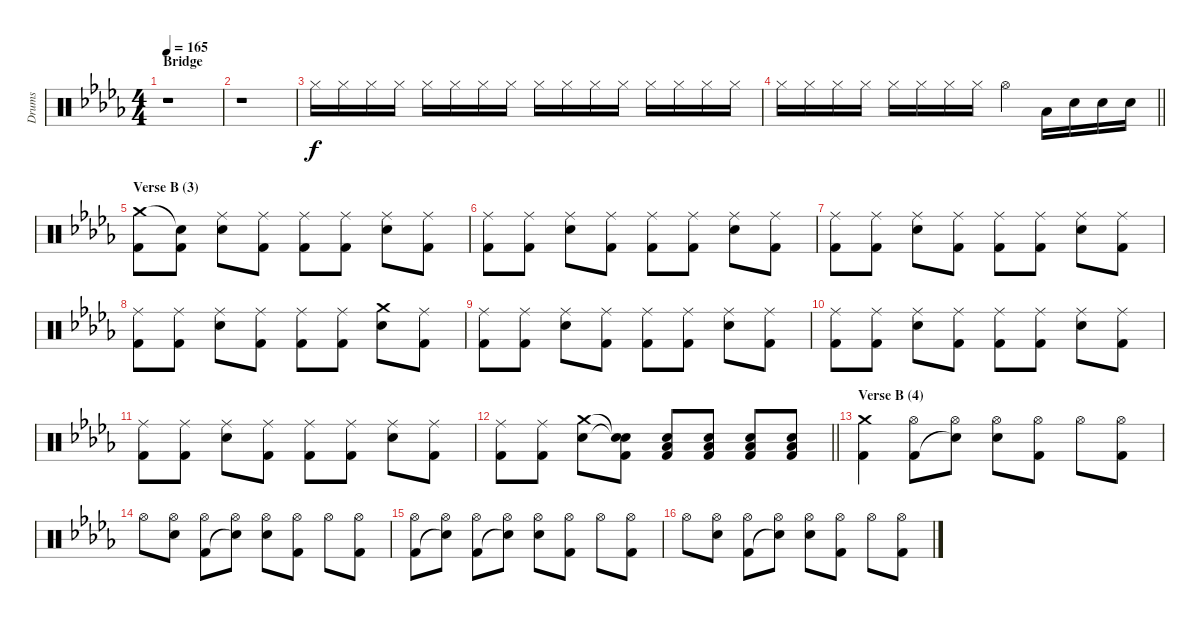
\track ("Drums" "Drums") {instrument percussion}
\staff {score}
\articulation defaults
\ts (4 4)
\section ("" "Bridge")
\tempo 165
\clef neutral
\ks bbminor
r.1{dy f} |
r.1 |
"Hi-Hat (closed)".16 "Hi-Hat (closed)".16 "Hi-Hat (closed)".16 "Hi-Hat (closed)".16 "Hi-Hat (closed)".16 "Hi-Hat (closed)".16 "Hi-Hat (closed)".16 "Hi-Hat (closed)".16 "Hi-Hat (closed)".16 "Hi-Hat (closed)".16 "Hi-Hat (closed)".16 "Hi-Hat (closed)".16 "Hi-Hat (closed)".16 "Hi-Hat (closed)".16 "Hi-Hat (closed)".16 "Hi-Hat (closed)".16 |
\barLineRight lightlight "Hi-Hat (closed)".16 "Hi-Hat (closed)".16 "Hi-Hat (closed)".16 "Hi-Hat (closed)".16 "Hi-Hat (closed)".16 "Hi-Hat (closed)".16 "Hi-Hat (closed)".16 "Hi-Hat (closed)".16 "Hi-Hat (open)".4 "Low Floor Tom (hit)".16 "Electric Snare (hit)".16 "Electric Snare (hit)".16 "Electric Snare (hit)".16
|
\section ("" "Verse B (3)")
("Crash medium (hit)" "Kick (hit) 2").8 ("Snare (hit)"{t} "Kick (hit) 2").8 ("Ride (middle)" "Electric Snare (hit)").8 ("Ride (middle)" "Kick (hit) 2").8 ("Ride (middle)" "Kick (hit) 2").8 ("Ride (middle)" "Kick (hit) 2").8 ("Ride (middle)" "Electric Snare (hit)").8 ("Ride (middle)" "Kick (hit) 2").8 |
("Ride (middle)" "Kick (hit) 2").8 ("Ride (middle)" "Kick (hit) 2").8 ("Ride (middle)" "Electric Snare (hit)").8 ("Ride (middle)" "Kick (hit) 2").8 ("Ride (middle)" "Kick (hit) 2").8 ("Ride (middle)" "Kick (hit) 2").8 ("Ride (middle)" "Electric Snare (hit)").8 ("Ride (middle)" "Kick (hit) 2").8 |
("Ride (middle)" "Kick (hit) 2").8 ("Ride (middle)" "Kick (hit) 2").8 ("Ride (middle)" "Electric Snare (hit)").8 ("Ride (middle)" "Kick (hit) 2").8 ("Ride (middle)" "Kick (hit) 2").8 ("Ride (middle)" "Kick (hit) 2").8 ("Ride (middle)" "Electric Snare (hit)").8 ("Ride (middle)" "Kick (hit) 2").8 |
("Ride (middle)" "Kick (hit) 2").8 ("Ride (middle)" "Kick (hit) 2").8 ("Ride (middle)" "Electric Snare (hit)").8 ("Ride (middle)" "Kick (hit) 2").8 ("Ride (middle)" "Kick (hit) 2").8 ("Ride (middle)" "Kick (hit) 2").8 ("Crash medium (hit)" "Electric Snare (hit)").8 ("Ride (middle)" "Kick (hit) 2").8 |
("Ride (middle)" "Kick (hit) 2").8 ("Ride (middle)" "Kick (hit) 2").8 ("Ride (middle)" "Electric Snare (hit)").8 ("Ride (middle)" "Kick (hit) 2").8 ("Ride (middle)" "Kick (hit) 2").8 ("Ride (middle)" "Kick (hit) 2").8 ("Ride (middle)" "Electric Snare (hit)").8 ("Ride (middle)" "Kick (hit) 2").8 |
("Ride (middle)" "Kick (hit) 2").8 ("Ride (middle)" "Kick (hit) 2").8 ("Ride (middle)" "Electric Snare (hit)").8 ("Ride (middle)" "Kick (hit) 2").8 ("Ride (middle)" "Kick (hit) 2").8 ("Ride (middle)" "Kick (hit) 2").8 ("Ride (middle)" "Electric Snare (hit)").8 ("Ride (middle)" "Kick (hit) 2").8 |
("Ride (middle)" "Kick (hit) 2").8 ("Ride (middle)" "Kick (hit) 2").8 ("Ride (middle)" "Electric Snare (hit)").8 ("Ride (middle)" "Kick (hit) 2").8 ("Ride (middle)" "Kick (hit) 2").8 ("Ride (middle)" "Kick (hit) 2").8 ("Ride (middle)" "Electric Snare (hit)").8 ("Ride (middle)" "Kick (hit) 2").8 |
\barLineRight lightlight
("Ride (middle)" "Kick (hit) 2").8 ("Ride (middle)" "Kick (hit) 2").8 ("Crash medium (hit)" "Electric Snare (hit)").8 ("Snare (hit)"{t} "Snare (hit)"{t} "Kick (hit) 2").8 ("Electric Snare (hit)" "Low Floor Tom (hit)" "Kick (hit) 2").8 ("Electric Snare (hit)" "Low Floor Tom (hit)" "Kick (hit) 2").8 ("Electric Snare (hit)" "Low Floor Tom (hit)" "Kick (hit) 2").8 ("Electric Snare (hit)" "Low Floor Tom (hit)" "Kick (hit) 2").8 |
\section ("" "Verse B (4)")
("Crash medium (hit)" "Kick (hit) 2").4 ("Hi-Hat (open)" "Kick (hit) 2").8 ("Hi-Hat (open)" "Snare (hit)"{t}).8 ("Hi-Hat (open)" "Electric Snare (hit)").8 ("Hi-Hat (open)" "Kick (hit) 2").8 "Hi-Hat (open)".8 ("Hi-Hat (open)" "Kick (hit) 2").8 |
"Hi-Hat (open)".8 ("Hi-Hat (open)" "Electric Snare (hit)").8 ("Hi-Hat (open)" "Kick (hit) 2").8 ("Hi-Hat (open)" "Snare (hit)"{t}).8 ("Hi-Hat (open)" "Electric Snare (hit)").8 ("Hi-Hat (open)" "Kick (hit) 2").8 "Hi-Hat (open)".8 ("Hi-Hat (open)" "Kick (hit) 2").8 |
("Hi-Hat (open)" "Kick (hit) 2").8 ("Hi-Hat (open)" "Snare (hit)"{t}).8 ("Hi-Hat (open)" "Kick (hit) 2").8 ("Hi-Hat (open)" "Snare (hit)"{t}).8 ("Hi-Hat (open)" "Electric Snare (hit)").8 ("Hi-Hat (open)" "Kick (hit) 2").8 "Hi-Hat (open)".8 ("Hi-Hat (open)" "Kick (hit) 2").8 |
"Hi-Hat (open)".8 ("Hi-Hat (open)" "Electric Snare (hit)").8 ("Hi-Hat (open)" "Kick (hit) 2").8 ("Hi-Hat (open)" "Snare (hit)"{t}).8 ("Hi-Hat (open)" "Electric Snare (hit)").8 ("Hi-Hat (open)" "Kick (hit) 2").8 "Hi-Hat (open)".8 ("Hi-Hat (open)" "Kick (hit) 2").8
